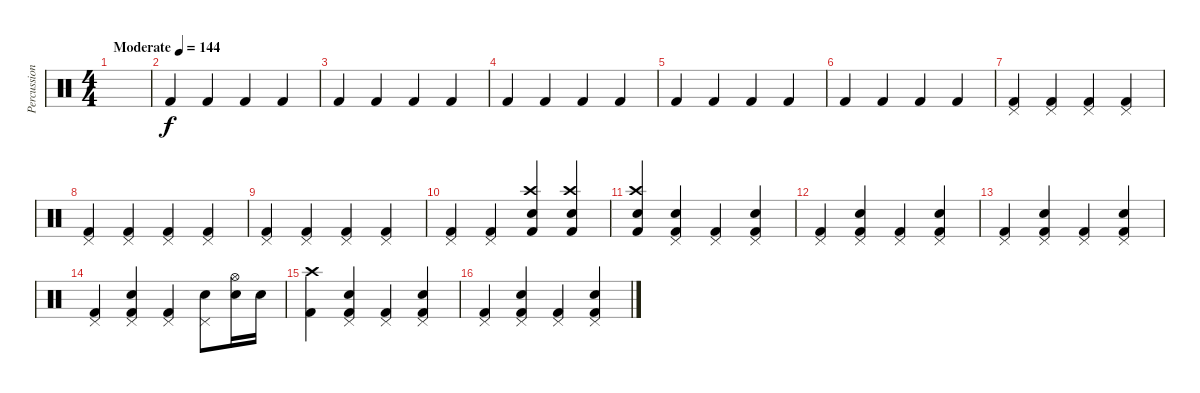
\track ("Percussion" "Percussion") {instrument percussion}
\staff {score}
\articulation defaults
\ts (4 4)
\tempo (144 "Moderate")
\clef neutral
\ks c
|
"Kick (hit) 2".4 "Kick (hit) 2".4 "Kick (hit) 2".4 "Kick (hit) 2".4 |
"Kick (hit) 2".4 "Kick (hit) 2".4 "Kick (hit) 2".4 "Kick (hit) 2".4 |
"Kick (hit) 2".4 "Kick (hit) 2".4 "Kick (hit) 2".4 "Kick (hit) 2".4 |
"Kick (hit) 2".4 "Kick (hit) 2".4 "Kick (hit) 2".4 "Kick (hit) 2".4 |
"Kick (hit) 2".4 "Kick (hit) 2".4 "Kick (hit) 2".4 "Kick (hit) 2".4 |
("Pedal Hi-Hat (hit)" "Kick (hit) 2").4 ("Pedal Hi-Hat (hit)" "Kick (hit) 2").4 ("Pedal Hi-Hat (hit)" "Kick (hit) 2").4 ("Pedal Hi-Hat (hit)" "Kick (hit) 2").4 |
("Pedal Hi-Hat (hit)" "Kick (hit) 2").4 ("Pedal Hi-Hat (hit)" "Kick (hit) 2").4 ("Pedal Hi-Hat (hit)" "Kick (hit) 2").4 ("Pedal Hi-Hat (hit)" "Kick (hit) 2").4 |
("Pedal Hi-Hat (hit)" "Kick (hit) 2").4 ("Pedal Hi-Hat (hit)" "Kick (hit) 2").4 ("Pedal Hi-Hat (hit)" "Kick (hit) 2").4 ("Pedal Hi-Hat (hit)" "Kick (hit) 2").4 |
("Pedal Hi-Hat (hit)" "Kick (hit) 2").4 ("Pedal Hi-Hat (hit)" "Kick (hit) 2").4 ("Crash high (hit)" "Electric Snare (hit)" "Kick (hit) 2").4 ("Crash high (hit)" "Electric Snare (hit)" "Kick (hit) 2").4 |
("Crash high (hit)" "Electric Snare (hit)" "Kick (hit) 2").4 ("Pedal Hi-Hat (hit)" "Electric Snare (hit)" "Kick (hit) 2").4 ("Pedal Hi-Hat (hit)" "Kick (hit) 2").4 ("Pedal Hi-Hat (hit)" "Electric Snare (hit)" "Kick (hit) 2").4 |
("Pedal Hi-Hat (hit)" "Kick (hit) 2").4 ("Pedal Hi-Hat (hit)" "Electric Snare (hit)" "Kick (hit) 2").4 ("Pedal Hi-Hat (hit)" "Kick (hit) 2").4 ("Pedal Hi-Hat (hit)" "Electric Snare (hit)" "Kick (hit) 2").4 |
("Pedal Hi-Hat (hit)" "Kick (hit) 2").4 ("Pedal Hi-Hat (hit)" "Electric Snare (hit)" "Kick (hit) 2").4 ("Pedal Hi-Hat (hit)" "Kick (hit) 2").4 ("Pedal Hi-Hat (hit)" "Electric Snare (hit)" "Kick (hit) 2").4 |
("Pedal Hi-Hat (hit)" "Kick (hit) 2").4 ("Pedal Hi-Hat (hit)" "Electric Snare (hit)" "Kick (hit) 2").4 ("Pedal Hi-Hat (hit)" "Kick (hit) 2").4 ("Pedal Hi-Hat (hit)" "Electric Snare (hit)").8 ("Hi-Hat (open)" "Electric Snare (hit)").16 "Electric Snare (hit)".16 |
("Crash high (hit)" "Kick (hit) 2").4 ("Pedal Hi-Hat (hit)" "Electric Snare (hit)" "Kick (hit) 2").4 ("Pedal Hi-Hat (hit)" "Kick (hit) 2").4 ("Pedal Hi-Hat (hit)" "Electric Snare (hit)" "Kick (hit) 2").4 |
("Pedal Hi-Hat (hit)" "Kick (hit) 2").4 ("Pedal Hi-Hat (hit)" "Electric Snare (hit)" "Kick (hit) 2").4 ("Pedal Hi-Hat (hit)" "Kick (hit) 2").4 ("Pedal Hi-Hat (hit)" "Electric Snare (hit)" "Kick (hit) 2").4
